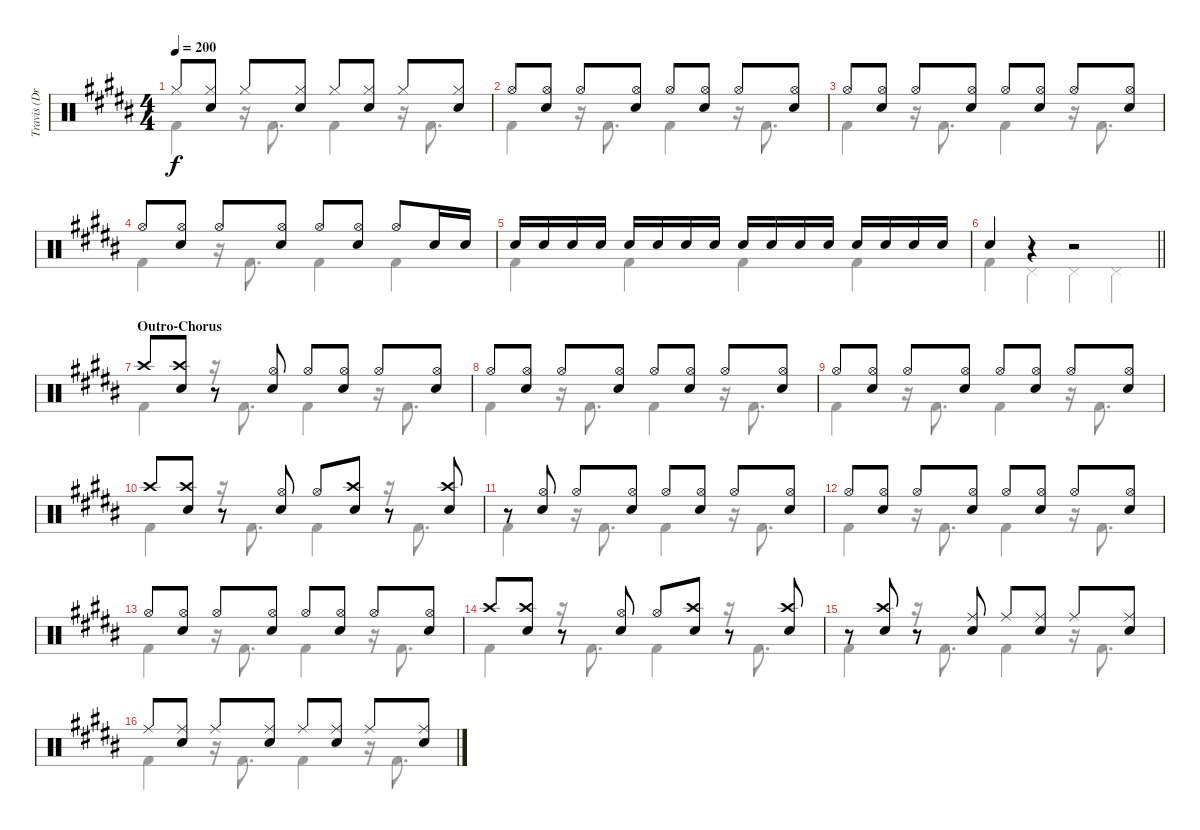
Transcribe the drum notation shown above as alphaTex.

\track ("Travis (Drums)" "Travis (Dr") {instrument percussion}
\staff {score}
\articulation defaults
\voice
\ts (4 4)
\tempo 200
\clef neutral
\ks b "Hi-Hat (closed)".8{dy f}
("Electric Snare (hit)" "Hi-Hat (closed)").8 "Hi-Hat (closed)".8 ("Electric Snare (hit)" "Hi-Hat (closed)").8 "Hi-Hat (closed)".8 ("Electric Snare (hit)" "Hi-Hat (closed)").8 "Hi-Hat (closed)".8 ("Electric Snare (hit)" "Hi-Hat (closed)").8 |
"Hi-Hat (open)".8 ("Electric Snare (hit)" "Hi-Hat (open)").8 "Hi-Hat (open)".8 ("Electric Snare (hit)" "Hi-Hat (open)").8 "Hi-Hat (open)".8 ("Electric Snare (hit)" "Hi-Hat (open)").8 "Hi-Hat (open)".8 ("Electric Snare (hit)" "Hi-Hat (open)").8 |
"Hi-Hat (open)".8 ("Electric Snare (hit)" "Hi-Hat (open)").8 "Hi-Hat (open)".8 ("Electric Snare (hit)" "Hi-Hat (open)").8 "Hi-Hat (open)".8 ("Electric Snare (hit)" "Hi-Hat (open)").8 "Hi-Hat (open)".8 ("Electric Snare (hit)" "Hi-Hat (open)").8 |
"Hi-Hat (open)".8 ("Electric Snare (hit)" "Hi-Hat (open)").8 "Hi-Hat (open)".8 ("Electric Snare (hit)" "Hi-Hat (open)").8 "Hi-Hat (open)".8 ("Electric Snare (hit)" "Hi-Hat (open)").8 "Hi-Hat (open)".8 "Electric Snare (hit)".16 "Electric Snare (hit)".16 |
"Electric Snare (hit)".16 "Electric Snare (hit)".16 "Electric Snare (hit)".16 "Electric Snare (hit)".16 "Electric Snare (hit)".16 "Electric Snare (hit)".16 "Electric Snare (hit)".16 "Electric Snare (hit)".16 "Electric Snare (hit)".16 "Electric Snare (hit)".16 "Electric Snare (hit)".16 "Electric Snare (hit)".16 "Electric Snare (hit)".16 "Electric Snare (hit)".16 "Electric Snare (hit)".16 "Electric Snare (hit)".16 |
\barLineRight lightlight "Electric Snare (hit)".4
r.4 r.2 |
\section ("" "Outro-Chorus")
"Crash high (hit)".8 ("Crash high (hit)" "Electric Snare (hit)").8 r.8 ("Electric Snare (hit)" "Hi-Hat (open)").8 "Hi-Hat (open)".8 ("Electric Snare (hit)" "Hi-Hat (open)").8 "Hi-Hat (open)".8 ("Electric Snare (hit)" "Hi-Hat (open)").8 |
"Hi-Hat (open)".8 ("Electric Snare (hit)" "Hi-Hat (open)").8 "Hi-Hat (open)".8 ("Electric Snare (hit)" "Hi-Hat (open)").8 "Hi-Hat (open)".8 ("Electric Snare (hit)" "Hi-Hat (open)").8 "Hi-Hat (open)".8 ("Electric Snare (hit)" "Hi-Hat (open)").8 |
"Hi-Hat (open)".8 ("Electric Snare (hit)" "Hi-Hat (open)").8 "Hi-Hat (open)".8 ("Electric Snare (hit)" "Hi-Hat (open)").8 "Hi-Hat (open)".8 ("Electric Snare (hit)" "Hi-Hat (open)").8 "Hi-Hat (open)".8 ("Electric Snare (hit)" "Hi-Hat (open)").8 |
"Crash high (hit)".8 ("Crash high (hit)" "Electric Snare (hit)").8 r.8 ("Electric Snare (hit)" "Hi-Hat (open)").8 "Hi-Hat (open)".8 ("Crash high (hit)" "Electric Snare (hit)").8 r.8 ("Crash high (hit)" "Electric Snare (hit)").8 |
r.8 ("Electric Snare (hit)" "Hi-Hat (open)").8 "Hi-Hat (open)".8 ("Electric Snare (hit)" "Hi-Hat (open)").8 "Hi-Hat (open)".8 ("Electric Snare (hit)" "Hi-Hat (open)").8 "Hi-Hat (open)".8 ("Electric Snare (hit)" "Hi-Hat (open)").8 |
"Hi-Hat (open)".8 ("Electric Snare (hit)" "Hi-Hat (open)").8 "Hi-Hat (open)".8 ("Electric Snare (hit)" "Hi-Hat (open)").8 "Hi-Hat (open)".8 ("Electric Snare (hit)" "Hi-Hat (open)").8 "Hi-Hat (open)".8 ("Electric Snare (hit)" "Hi-Hat (open)").8 |
"Hi-Hat (open)".8 ("Electric Snare (hit)" "Hi-Hat (open)").8 "Hi-Hat (open)".8 ("Electric Snare (hit)" "Hi-Hat (open)").8 "Hi-Hat (open)".8 ("Electric Snare (hit)" "Hi-Hat (open)").8 "Hi-Hat (open)".8 ("Electric Snare (hit)" "Hi-Hat (open)").8 |
"Crash high (hit)".8 ("Crash high (hit)" "Electric Snare (hit)").8 r.8 ("Electric Snare (hit)" "Hi-Hat (open)").8 "Hi-Hat (open)".8 ("Crash high (hit)" "Electric Snare (hit)").8 r.8 ("Crash high (hit)" "Electric Snare (hit)").8 |
r.8 ("Crash high (hit)" "Electric Snare (hit)").8 r.8 ("Ride (middle)" "Electric Snare (hit)").8 "Ride (middle)".8 ("Ride (middle)" "Electric Snare (hit)").8 "Ride (middle)".8 ("Ride (middle)" "Electric Snare (hit)").8 |
"Ride (middle)".8 ("Ride (middle)" "Electric Snare (hit)").8 "Ride (middle)".8 ("Ride (middle)" "Electric Snare (hit)").8 "Ride (middle)".8 ("Ride (middle)" "Electric Snare (hit)").8 "Ride (middle)".8 ("Ride (middle)" "Electric Snare (hit)").8
\voice
\clef neutral
\ottava regular
\simile none
\ks b "Kick (hit) 2".4{dy f}
r.16 "Kick (hit) 2".8{d} "Kick (hit) 2".4 r.16 "Kick (hit) 2".8{d} |
"Kick (hit) 2".4 r.16 "Kick (hit) 2".8{d} "Kick (hit) 2".4 r.16 "Kick (hit) 2".8{d} |
"Kick (hit) 2".4 r.16 "Kick (hit) 2".8{d} "Kick (hit) 2".4 r.16 "Kick (hit) 2".8{d} |
"Kick (hit) 2".4 r.16 "Kick (hit) 2".8{d} "Kick (hit) 2".4 "Kick (hit) 2".4 |
"Kick (hit) 2".4 "Kick (hit) 2".4 "Kick (hit) 2".4 "Kick (hit) 2".4 |
\barLineRight lightlight "Kick (hit) 2".4 "Pedal Hi-Hat (hit)".4 "Pedal Hi-Hat (hit)".4 "Pedal Hi-Hat (hit)".4
|
"Kick (hit) 2".4 r.16 "Kick (hit) 2".8{d} "Kick (hit) 2".4 r.16 "Kick (hit) 2".8{d} |
"Kick (hit) 2".4 r.16 "Kick (hit) 2".8{d} "Kick (hit) 2".4 r.16 "Kick (hit) 2".8{d} |
"Kick (hit) 2".4 r.16 "Kick (hit) 2".8{d} "Kick (hit) 2".4 r.16 "Kick (hit) 2".8{d} |
"Kick (hit) 2".4 r.16 "Kick (hit) 2".8{d} "Kick (hit) 2".4 r.16 "Kick (hit) 2".8{d} |
"Kick (hit) 2".4 r.16 "Kick (hit) 2".8{d} "Kick (hit) 2".4 r.16 "Kick (hit) 2".8{d} |
"Kick (hit) 2".4 r.16 "Kick (hit) 2".8{d} "Kick (hit) 2".4 r.16 "Kick (hit) 2".8{d} |
"Kick (hit) 2".4 r.16 "Kick (hit) 2".8{d} "Kick (hit) 2".4 r.16 "Kick (hit) 2".8{d} |
"Kick (hit) 2".4 r.16 "Kick (hit) 2".8{d} "Kick (hit) 2".4 r.16 "Kick (hit) 2".8{d} |
"Kick (hit) 2".4 r.16 "Kick (hit) 2".8{d} "Kick (hit) 2".4 r.16 "Kick (hit) 2".8{d} |
"Kick (hit) 2".4 r.16 "Kick (hit) 2".8{d} "Kick (hit) 2".4 r.16 "Kick (hit) 2".8{d}
